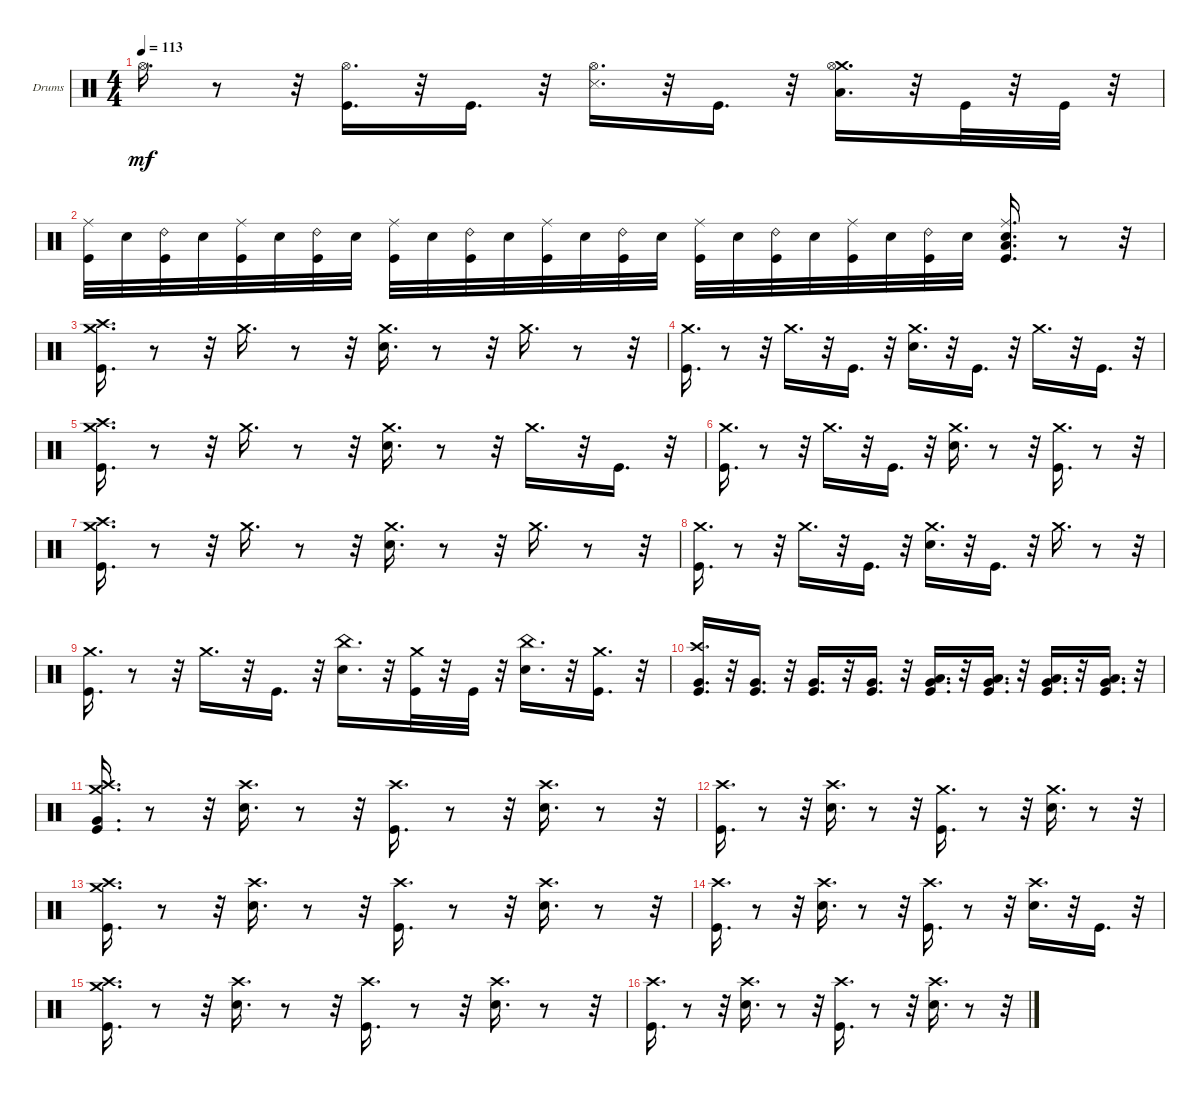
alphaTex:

\bracketExtendMode groupsimilarinstruments
\firstSystemTrackNameOrientation horizontal
\otherSystemsTrackNameOrientation horizontal
\track ("Drumkit" "Drums") {instrument percussion}
\staff {score}
\articulation defaults
\ts (4 4)
\tempo 113
\clef neutral
\ks c "Hi-Hat (open)".16{d dy mf}
r.8 r.32 ("Hi-Hat (open)" "Kick (hit)").16{d} r.32 "Kick (hit)".16{d} r.32 ("Hi-Hat (open)" "Snare (side stick) 3").16{d} r.32 "Kick (hit)".16{d} r.32 ("Low Tom (hit)" "Crash medium (hit)" "Hi-Hat (open)").16{d} r.32 "Kick (hit)".32 r.32 "Kick (hit)".32 r.32 |
("Ride (middle)" "Kick (hit)").32 "Snare (hit) 2".32 ("Ride (bell) 2" "Kick (hit)").32 "Snare (hit) 2".32 ("Ride (middle)" "Kick (hit)").32 "Snare (hit) 2".32 ("Ride (bell) 2" "Kick (hit)").32 "Snare (hit) 2".32 ("Ride (middle)" "Kick (hit)").32 "Snare (hit) 2".32 ("Ride (bell) 2" "Kick (hit)").32 "Snare (hit) 2".32 ("Ride (middle)" "Kick (hit)").32 "Snare (hit) 2".32 ("Ride (bell) 2" "Kick (hit)").32 "Snare (hit) 2".32 ("Ride (middle)" "Kick (hit)").32 "Snare (hit) 2".32 ("Ride (bell) 2" "Kick (hit)").32 "Snare (hit) 2".32 ("Ride (middle)" "Kick (hit)").32 "Snare (hit) 2".32 ("Ride (bell) 2" "Kick (hit)").32 "Snare (hit) 2".32 ("Ride (middle)" "Low Tom (hit)" "Snare (hit) 2" "Kick (hit)").16{d} r.8 r.32 |
("Crash high (hit)" "Kick (hit)" "Crash medium (hit)").16{d} r.8 r.32 "Crash medium (hit)".16{d} r.8 r.32 ("Snare (hit) 2" "Crash medium (hit)").16{d} r.8 r.32 "Crash medium (hit)".16{d} r.8 r.32 |
("Kick (hit)" "Crash medium (hit)").16{d} r.8 r.32 "Crash medium (hit)".16{d} r.32 "Kick (hit)".16{d} r.32 ("Snare (hit) 2" "Crash medium (hit)").16{d} r.32 "Kick (hit)".16{d} r.32 "Crash medium (hit)".16{d} r.32 "Kick (hit)".16{d} r.32 |
("Crash high (hit)" "Kick (hit)" "Crash medium (hit)").16{d} r.8 r.32 "Crash medium (hit)".16{d} r.8 r.32 ("Snare (hit) 2" "Crash medium (hit)").16{d} r.8 r.32 "Crash medium (hit)".16{d} r.32 "Kick (hit)".16{d} r.32 |
("Kick (hit)" "Crash medium (hit)").16{d} r.8 r.32 "Crash medium (hit)".16{d} r.32 "Kick (hit)".16{d} r.32 ("Snare (hit) 2" "Crash medium (hit)").16{d} r.8 r.32 ("Kick (hit)" "Crash medium (hit)").16{d} r.8 r.32 |
("Crash high (hit)" "Kick (hit)" "Crash medium (hit)").16{d} r.8 r.32 "Crash medium (hit)".16{d} r.8 r.32 ("Snare (hit) 2" "Crash medium (hit)").16{d} r.8 r.32 "Crash medium (hit)".16{d} r.8 r.32 |
("Kick (hit)" "Crash medium (hit)").16{d} r.8 r.32 "Crash medium (hit)".16{d} r.32 "Kick (hit)".16{d} r.32 ("Snare (hit) 2" "Crash medium (hit)").16{d} r.32 "Kick (hit)".16{d} r.32 "Crash medium (hit)".16{d} r.8 r.32 |
("Kick (hit)" "Crash medium (hit)").16{d} r.8 r.32 "Crash medium (hit)".16{d} r.32 "Kick (hit)".16{d} r.32 ("China (hit)" "Snare (hit) 2").16{d} r.32 ("Crash medium (hit)" "Kick (hit)").32 r.32 "Kick (hit)".32 r.32 ("China (hit)" "Snare (hit) 2").16{d} r.32 ("Crash medium (hit)" "Kick (hit)").16{d} r.32 |
("Crash high (hit)" "Very Low Tom (hit)" "Kick (hit)").16{d} r.32 ("Very Low Tom (hit)" "Kick (hit)").16{d} r.32 ("Very Low Tom (hit)" "Kick (hit)").16{d} r.32 ("Very Low Tom (hit)" "Kick (hit)").16{d} r.32 ("Low Tom (hit)" "Very Low Tom (hit)" "Kick (hit)").16{d} r.32 ("Low Tom (hit)" "Very Low Tom (hit)" "Kick (hit)").16{d} r.32 ("Low Tom (hit)" "Very Low Tom (hit)" "Kick (hit)").16{d} r.32 ("Low Tom (hit)" "Very Low Tom (hit)" "Kick (hit)").16{d} r.32 |
("Kick (hit)" "Very Low Tom (hit)" "Crash high (hit)" "Crash medium (hit)").16{d} r.8 r.32 ("Crash high (hit)" "Snare (hit) 2").16{d} r.8 r.32 ("Crash high (hit)" "Kick (hit)").16{d} r.8 r.32 ("Crash high (hit)" "Snare (hit) 2").16{d} r.8 r.32 |
("Crash high (hit)" "Kick (hit)").16{d} r.8 r.32 ("Crash high (hit)" "Snare (hit) 2").16{d} r.8 r.32 ("Kick (hit)" "Crash medium (hit)").16{d} r.8 r.32 ("Crash medium (hit)" "Snare (hit) 2").16{d} r.8 r.32 |
("Crash high (hit)" "Kick (hit)" "Crash medium (hit)").16{d} r.8 r.32 ("Crash high (hit)" "Snare (hit) 2").16{d} r.8 r.32 ("Crash high (hit)" "Kick (hit)").16{d} r.8 r.32 ("Crash high (hit)" "Snare (hit) 2").16{d} r.8 r.32 |
("Crash high (hit)" "Kick (hit)").16{d} r.8 r.32 ("Crash high (hit)" "Snare (hit) 2").16{d} r.8 r.32 ("Crash high (hit)" "Kick (hit)").16{d} r.8 r.32 ("Crash high (hit)" "Snare (hit) 2").16{d} r.32 "Kick (hit)".16{d} r.32 |
("Crash medium (hit)" "Kick (hit)" "Crash high (hit)").16{d} r.8 r.32 ("Crash high (hit)" "Snare (hit) 2").16{d} r.8 r.32 ("Crash high (hit)" "Kick (hit)").16{d} r.8 r.32 ("Crash high (hit)" "Snare (hit) 2").16{d} r.8 r.32 |
("Crash high (hit)" "Kick (hit)").16{d} r.8 r.32 ("Crash high (hit)" "Snare (hit) 2").16{d} r.8 r.32 ("Crash high (hit)" "Kick (hit)").16{d} r.8 r.32 ("Crash high (hit)" "Snare (hit) 2").16{d} r.8 r.32
